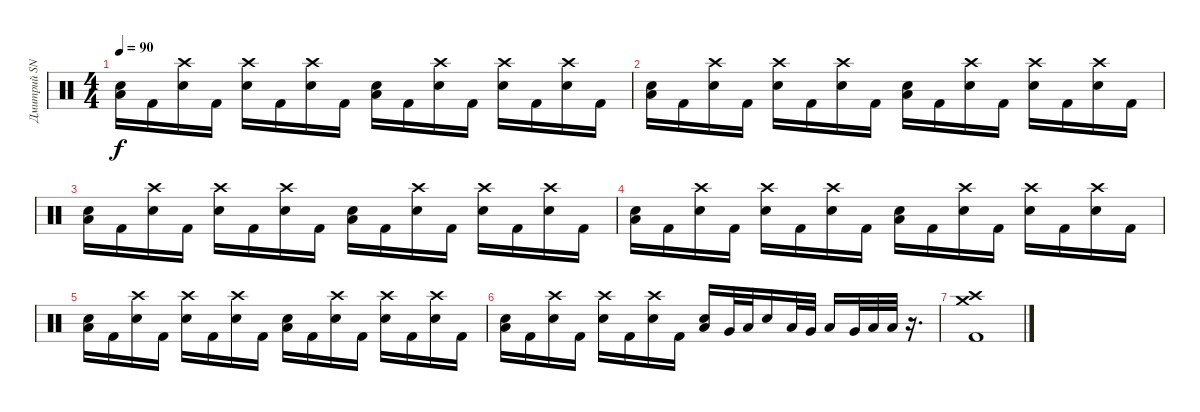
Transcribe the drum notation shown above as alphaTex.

\track ("Дмитрий SNAKE Хакимов" "Дмитрий SN") {instrument percussion}
\staff {score}
\articulation defaults
\ts (4 4)
\tempo 90
\clef neutral
\ks c
("Snare (hit) 2" "Low Tom (hit)").16{dy f} "Kick (hit) 2".16 ("Crash high (hit)" "Snare (hit) 2").16 "Kick (hit) 2".16 ("Crash high (hit)" "Snare (hit) 2").16 "Kick (hit) 2".16 ("Crash high (hit)" "Snare (hit) 2").16 "Kick (hit) 2".16 ("Snare (hit) 2" "Low Tom (hit)").16 "Kick (hit) 2".16 ("Crash high (hit)" "Snare (hit) 2").16 "Kick (hit) 2".16 ("Crash high (hit)" "Snare (hit) 2").16 "Kick (hit) 2".16 ("Crash high (hit)" "Snare (hit) 2").16 "Kick (hit) 2".16 |
("Snare (hit) 2" "Low Tom (hit)").16 "Kick (hit) 2".16 ("Crash high (hit)" "Snare (hit) 2").16 "Kick (hit) 2".16 ("Crash high (hit)" "Snare (hit) 2").16 "Kick (hit) 2".16 ("Crash high (hit)" "Snare (hit) 2").16 "Kick (hit) 2".16 ("Snare (hit) 2" "Low Tom (hit)").16 "Kick (hit) 2".16 ("Crash high (hit)" "Snare (hit) 2").16 "Kick (hit) 2".16 ("Crash high (hit)" "Snare (hit) 2").16 "Kick (hit) 2".16 ("Crash high (hit)" "Snare (hit) 2").16 "Kick (hit) 2".16 |
("Snare (hit) 2" "Low Tom (hit)").16 "Kick (hit) 2".16 ("Crash high (hit)" "Snare (hit) 2").16 "Kick (hit) 2".16 ("Crash high (hit)" "Snare (hit) 2").16 "Kick (hit) 2".16 ("Crash high (hit)" "Snare (hit) 2").16 "Kick (hit) 2".16 ("Snare (hit) 2" "Low Tom (hit)").16 "Kick (hit) 2".16 ("Crash high (hit)" "Snare (hit) 2").16 "Kick (hit) 2".16 ("Crash high (hit)" "Snare (hit) 2").16 "Kick (hit) 2".16 ("Crash high (hit)" "Snare (hit) 2").16 "Kick (hit) 2".16 |
("Snare (hit) 2" "Low Tom (hit)").16 "Kick (hit) 2".16 ("Crash high (hit)" "Snare (hit) 2").16 "Kick (hit) 2".16 ("Crash high (hit)" "Snare (hit) 2").16 "Kick (hit) 2".16 ("Crash high (hit)" "Snare (hit) 2").16 "Kick (hit) 2".16 ("Snare (hit) 2" "Low Tom (hit)").16 "Kick (hit) 2".16 ("Crash high (hit)" "Snare (hit) 2").16 "Kick (hit) 2".16 ("Crash high (hit)" "Snare (hit) 2").16 "Kick (hit) 2".16 ("Crash high (hit)" "Snare (hit) 2").16 "Kick (hit) 2".16 |
("Snare (hit) 2" "Low Tom (hit)").16 "Kick (hit) 2".16 ("Crash high (hit)" "Snare (hit) 2").16 "Kick (hit) 2".16 ("Crash high (hit)" "Snare (hit) 2").16 "Kick (hit) 2".16 ("Crash high (hit)" "Snare (hit) 2").16 "Kick (hit) 2".16 ("Snare (hit) 2" "Low Tom (hit)").16 "Kick (hit) 2".16 ("Crash high (hit)" "Snare (hit) 2").16 "Kick (hit) 2".16 ("Crash high (hit)" "Snare (hit) 2").16 "Kick (hit) 2".16 ("Crash high (hit)" "Snare (hit) 2").16 "Kick (hit) 2".16 |
("Snare (hit) 2" "Low Tom (hit)").16 "Kick (hit) 2".16 ("Crash high (hit)" "Snare (hit) 2").16 "Kick (hit) 2".16 ("Crash high (hit)" "Snare (hit) 2").16 "Kick (hit) 2".16 ("Crash high (hit)" "Snare (hit) 2").16 "Kick (hit) 2".16 ("Snare (hit) 2" "Low Tom (hit)").16 "Very Low Tom (hit)".32 "Low Tom (hit)".32 "Snare (hit) 2".16 "Low Floor Tom (hit)".32 "Very Low Tom (hit)".32 "Low Tom (hit)".16 "Very Low Tom (hit)".32 "Low Tom (hit)".32 "Low Floor Tom (hit)".32 r.16{d} |
("Crash high (hit)" "Crash medium (hit)" "Kick (hit) 2").1
